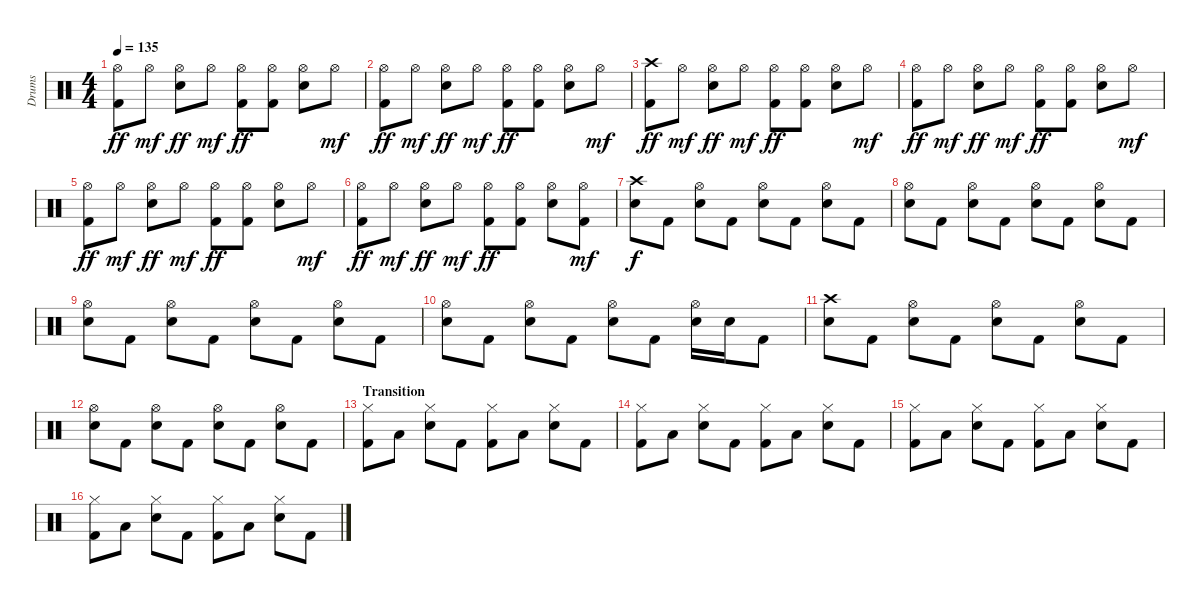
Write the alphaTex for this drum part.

\track ("Drums" "Drums") {instrument percussion}
\staff {score}
\articulation defaults
\ts (4 4)
\tempo 135
\clef neutral
\ks c
("Hi-Hat (open)" "Kick (hit) 2").8{dy ff} "Hi-Hat (open)".8{dy mf} ("Hi-Hat (open)" "Snare (hit) 2").8{dy ff} "Hi-Hat (open)".8{dy mf} ("Hi-Hat (open)" "Kick (hit) 2").8{dy ff} ("Hi-Hat (open)" "Kick (hit) 2").8 ("Hi-Hat (open)" "Snare (hit) 2").8 "Hi-Hat (open)".8{dy mf} |
("Hi-Hat (open)" "Kick (hit) 2").8{dy ff} "Hi-Hat (open)".8{dy mf} ("Hi-Hat (open)" "Snare (hit) 2").8{dy ff} "Hi-Hat (open)".8{dy mf} ("Hi-Hat (open)" "Kick (hit) 2").8{dy ff} ("Hi-Hat (open)" "Kick (hit) 2").8 ("Hi-Hat (open)" "Snare (hit) 2").8 "Hi-Hat (open)".8{dy mf} |
("Crash high (hit)" "Kick (hit) 2").8{dy ff} "Hi-Hat (open)".8{dy mf} ("Hi-Hat (open)" "Snare (hit) 2").8{dy ff} "Hi-Hat (open)".8{dy mf} ("Hi-Hat (open)" "Kick (hit) 2").8{dy ff} ("Hi-Hat (open)" "Kick (hit) 2").8 ("Hi-Hat (open)" "Snare (hit) 2").8 "Hi-Hat (open)".8{dy mf} |
("Hi-Hat (open)" "Kick (hit) 2").8{dy ff} "Hi-Hat (open)".8{dy mf} ("Hi-Hat (open)" "Snare (hit) 2").8{dy ff} "Hi-Hat (open)".8{dy mf} ("Hi-Hat (open)" "Kick (hit) 2").8{dy ff} ("Hi-Hat (open)" "Kick (hit) 2").8 ("Hi-Hat (open)" "Snare (hit) 2").8 "Hi-Hat (open)".8{dy mf} |
("Hi-Hat (open)" "Kick (hit) 2").8{dy ff} "Hi-Hat (open)".8{dy mf} ("Hi-Hat (open)" "Snare (hit) 2").8{dy ff} "Hi-Hat (open)".8{dy mf} ("Hi-Hat (open)" "Kick (hit) 2").8{dy ff} ("Hi-Hat (open)" "Kick (hit) 2").8 ("Hi-Hat (open)" "Snare (hit) 2").8 "Hi-Hat (open)".8{dy mf} |
("Hi-Hat (open)" "Kick (hit) 2").8{dy ff} "Hi-Hat (open)".8{dy mf} ("Hi-Hat (open)" "Snare (hit) 2").8{dy ff} "Hi-Hat (open)".8{dy mf} ("Hi-Hat (open)" "Kick (hit) 2").8{dy ff} ("Hi-Hat (open)" "Kick (hit) 2").8 ("Hi-Hat (open)" "Snare (hit) 2").8 ("Hi-Hat (open)" "Kick (hit) 2").8{dy mf} |
("Crash high (hit)" "Snare (hit) 2").8{dy f} "Kick (hit) 2".8 ("Hi-Hat (open)" "Snare (hit) 2").8 "Kick (hit) 2".8 ("Hi-Hat (open)" "Snare (hit) 2").8 "Kick (hit) 2".8 ("Hi-Hat (open)" "Snare (hit) 2").8 "Kick (hit) 2".8 |
("Hi-Hat (open)" "Snare (hit) 2").8 "Kick (hit) 2".8 ("Hi-Hat (open)" "Snare (hit) 2").8 "Kick (hit) 2".8 ("Hi-Hat (open)" "Snare (hit) 2").8 "Kick (hit) 2".8 ("Hi-Hat (open)" "Snare (hit) 2").8 "Kick (hit) 2".8 |
("Hi-Hat (open)" "Snare (hit) 2").8 "Kick (hit) 2".8 ("Hi-Hat (open)" "Snare (hit) 2").8 "Kick (hit) 2".8 ("Hi-Hat (open)" "Snare (hit) 2").8 "Kick (hit) 2".8 ("Hi-Hat (open)" "Snare (hit) 2").8 "Kick (hit) 2".8 |
("Hi-Hat (open)" "Snare (hit) 2").8 "Kick (hit) 2".8 ("Hi-Hat (open)" "Snare (hit) 2").8 "Kick (hit) 2".8 ("Hi-Hat (open)" "Snare (hit) 2").8 "Kick (hit) 2".8 ("Hi-Hat (open)" "Snare (hit) 2").16 "Snare (hit) 2".16 "Kick (hit) 2".8 |
("Crash high (hit)" "Snare (hit) 2").8 "Kick (hit) 2".8 ("Hi-Hat (open)" "Snare (hit) 2").8 "Kick (hit) 2".8 ("Hi-Hat (open)" "Snare (hit) 2").8 "Kick (hit) 2".8 ("Hi-Hat (open)" "Snare (hit) 2").8 "Kick (hit) 2".8 |
("Hi-Hat (open)" "Snare (hit) 2").8 "Kick (hit) 2".8 ("Hi-Hat (open)" "Snare (hit) 2").8 "Kick (hit) 2".8 ("Hi-Hat (open)" "Snare (hit) 2").8 "Kick (hit) 2".8 ("Hi-Hat (open)" "Snare (hit) 2").8 "Kick (hit) 2".8 |
\section ("" "Transition")
("Hi-Hat (closed)" "Kick (hit) 2").8 "Low Floor Tom (hit)".8 ("Hi-Hat (closed)" "Snare (hit) 2").8 "Kick (hit) 2".8 ("Hi-Hat (closed)" "Kick (hit) 2").8 "Low Floor Tom (hit)".8 ("Hi-Hat (closed)" "Snare (hit) 2").8 "Kick (hit) 2".8 |
("Hi-Hat (closed)" "Kick (hit) 2").8 "Low Floor Tom (hit)".8 ("Hi-Hat (closed)" "Snare (hit) 2").8 "Kick (hit) 2".8 ("Hi-Hat (closed)" "Kick (hit) 2").8 "Low Floor Tom (hit)".8 ("Hi-Hat (closed)" "Snare (hit) 2").8 "Kick (hit) 2".8 |
("Hi-Hat (closed)" "Kick (hit) 2").8 "Low Floor Tom (hit)".8 ("Hi-Hat (closed)" "Snare (hit) 2").8 "Kick (hit) 2".8 ("Hi-Hat (closed)" "Kick (hit) 2").8 "Low Floor Tom (hit)".8 ("Hi-Hat (closed)" "Snare (hit) 2").8 "Kick (hit) 2".8 |
("Hi-Hat (closed)" "Kick (hit) 2").8 "Low Floor Tom (hit)".8 ("Hi-Hat (closed)" "Snare (hit) 2").8 "Kick (hit) 2".8 ("Hi-Hat (closed)" "Kick (hit) 2").8 "Low Floor Tom (hit)".8 ("Hi-Hat (closed)" "Snare (hit) 2").8 "Kick (hit) 2".8
